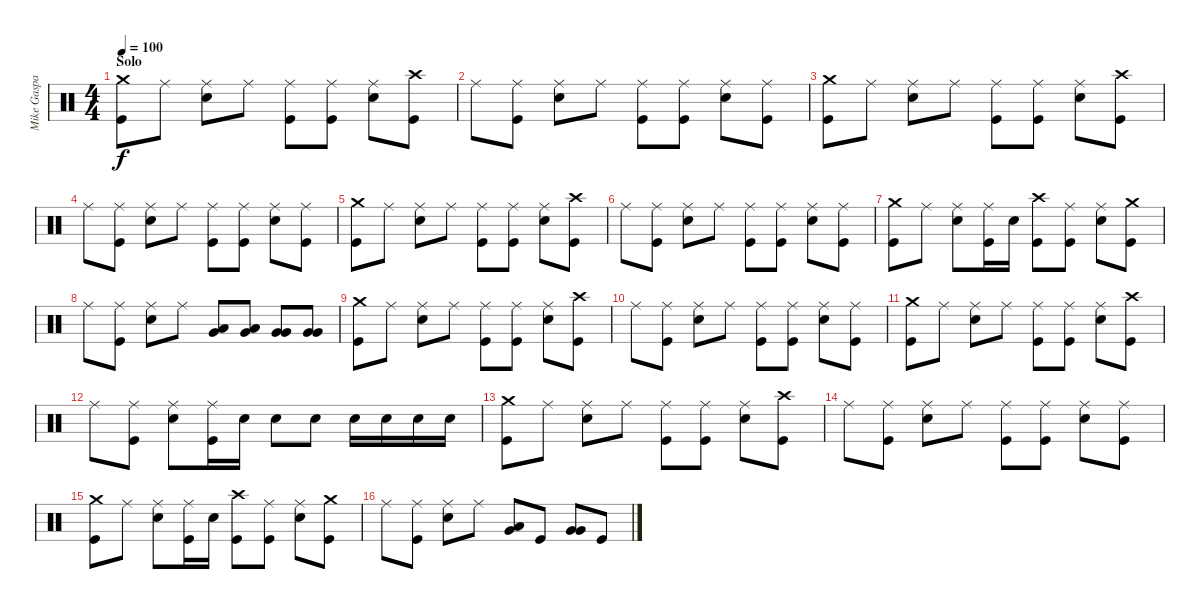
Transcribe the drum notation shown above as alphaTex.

\track ("Mike Gaspar" "Mike Gaspa") {instrument percussion}
\staff {score}
\articulation defaults
\ts (4 4)
\section ("" "Solo")
\tempo 100
\clef neutral
\ks c
("Crash medium (hit)" "Kick (hit)").8{dy f} "Ride (middle)".8 ("Ride (middle)" "Electric Snare (hit)").8 "Ride (middle)".8 ("Ride (middle)" "Kick (hit)").8 ("Ride (middle)" "Kick (hit)").8 ("Ride (middle)" "Electric Snare (hit)").8 ("Crash high (hit)" "Kick (hit)").8 |
"Ride (middle)".8 ("Ride (middle)" "Kick (hit)").8 ("Ride (middle)" "Electric Snare (hit)").8 "Ride (middle)".8 ("Ride (middle)" "Kick (hit)").8 ("Ride (middle)" "Kick (hit)").8 ("Ride (middle)" "Electric Snare (hit)").8 ("Ride (middle)" "Kick (hit)").8 |
("Crash medium (hit)" "Kick (hit)").8 "Ride (middle)".8 ("Ride (middle)" "Electric Snare (hit)").8 "Ride (middle)".8 ("Ride (middle)" "Kick (hit)").8 ("Ride (middle)" "Kick (hit)").8 ("Ride (middle)" "Electric Snare (hit)").8 ("Crash high (hit)" "Kick (hit)").8 |
"Ride (middle)".8 ("Ride (middle)" "Kick (hit)").8 ("Ride (middle)" "Electric Snare (hit)").8 "Ride (middle)".8 ("Ride (middle)" "Kick (hit)").8 ("Ride (middle)" "Kick (hit)").8 ("Ride (middle)" "Electric Snare (hit)").8 ("Ride (middle)" "Kick (hit)").8 |
("Crash medium (hit)" "Kick (hit)").8 "Ride (middle)".8 ("Ride (middle)" "Electric Snare (hit)").8 "Ride (middle)".8 ("Ride (middle)" "Kick (hit)").8 ("Ride (middle)" "Kick (hit)").8 ("Ride (middle)" "Electric Snare (hit)").8 ("Crash high (hit)" "Kick (hit)").8 |
"Ride (middle)".8 ("Ride (middle)" "Kick (hit)").8 ("Ride (middle)" "Electric Snare (hit)").8 "Ride (middle)".8 ("Ride (middle)" "Kick (hit)").8 ("Ride (middle)" "Kick (hit)").8 ("Ride (middle)" "Electric Snare (hit)").8 ("Ride (middle)" "Kick (hit)").8 |
("Crash medium (hit)" "Kick (hit)").8 "Ride (middle)".8 ("Ride (middle)" "Electric Snare (hit)").8 ("Ride (middle)" "Kick (hit)").16 "Electric Snare (hit)".16 ("Crash high (hit)" "Kick (hit)").8 ("Ride (middle)" "Kick (hit)").8 ("Ride (middle)" "Electric Snare (hit)").8 ("Crash medium (hit)" "Kick (hit)").8 |
"Ride (middle)".8 ("Ride (middle)" "Kick (hit)").8 ("Ride (middle)" "Electric Snare (hit)").8 "Ride (middle)".8 ("Low Tom (hit)" "Very Low Tom (hit)").8 ("Low Tom (hit)" "Very Low Tom (hit)").8 ("Very Low Tom (hit)" "Very Low Tom (hit)").8 ("Very Low Tom (hit)" "Very Low Tom (hit)").8 |
("Crash medium (hit)" "Kick (hit)").8 "Ride (middle)".8 ("Ride (middle)" "Electric Snare (hit)").8 "Ride (middle)".8 ("Ride (middle)" "Kick (hit)").8 ("Ride (middle)" "Kick (hit)").8 ("Ride (middle)" "Electric Snare (hit)").8 ("Crash high (hit)" "Kick (hit)").8 |
"Ride (middle)".8 ("Ride (middle)" "Kick (hit)").8 ("Ride (middle)" "Electric Snare (hit)").8 "Ride (middle)".8 ("Ride (middle)" "Kick (hit)").8 ("Ride (middle)" "Kick (hit)").8 ("Ride (middle)" "Electric Snare (hit)").8 ("Ride (middle)" "Kick (hit)").8 |
("Crash medium (hit)" "Kick (hit)").8 "Ride (middle)".8 ("Ride (middle)" "Electric Snare (hit)").8 "Ride (middle)".8 ("Ride (middle)" "Kick (hit)").8 ("Ride (middle)" "Kick (hit)").8 ("Ride (middle)" "Electric Snare (hit)").8 ("Crash high (hit)" "Kick (hit)").8 |
"Ride (middle)".8 ("Ride (middle)" "Kick (hit)").8 ("Ride (middle)" "Electric Snare (hit)").8 ("Ride (middle)" "Kick (hit)").16 "Electric Snare (hit)".16 "Electric Snare (hit)".8 "Electric Snare (hit)".8 "Electric Snare (hit)".16 "Electric Snare (hit)".16 "Electric Snare (hit)".16 "Electric Snare (hit)".16 |
("Crash medium (hit)" "Kick (hit)").8 "Ride (middle)".8 ("Ride (middle)" "Electric Snare (hit)").8 "Ride (middle)".8 ("Ride (middle)" "Kick (hit)").8 ("Ride (middle)" "Kick (hit)").8 ("Ride (middle)" "Electric Snare (hit)").8 ("Crash high (hit)" "Kick (hit)").8 |
"Ride (middle)".8 ("Ride (middle)" "Kick (hit)").8 ("Ride (middle)" "Electric Snare (hit)").8 "Ride (middle)".8 ("Ride (middle)" "Kick (hit)").8 ("Ride (middle)" "Kick (hit)").8 ("Ride (middle)" "Electric Snare (hit)").8 ("Ride (middle)" "Kick (hit)").8 |
("Crash medium (hit)" "Kick (hit)").8 "Ride (middle)".8 ("Ride (middle)" "Electric Snare (hit)").8 ("Ride (middle)" "Kick (hit)").16 "Electric Snare (hit)".16 ("Crash high (hit)" "Kick (hit)").8 ("Ride (middle)" "Kick (hit)").8 ("Ride (middle)" "Electric Snare (hit)").8 ("Crash medium (hit)" "Kick (hit)").8 |
"Ride (middle)".8 ("Ride (middle)" "Kick (hit)").8 ("Ride (middle)" "Electric Snare (hit)").8 "Ride (middle)".8 ("Low Tom (hit)" "Very Low Tom (hit)").8 "Kick (hit)".8 ("Very Low Tom (hit)" "Very Low Tom (hit)").8 "Kick (hit)".8
